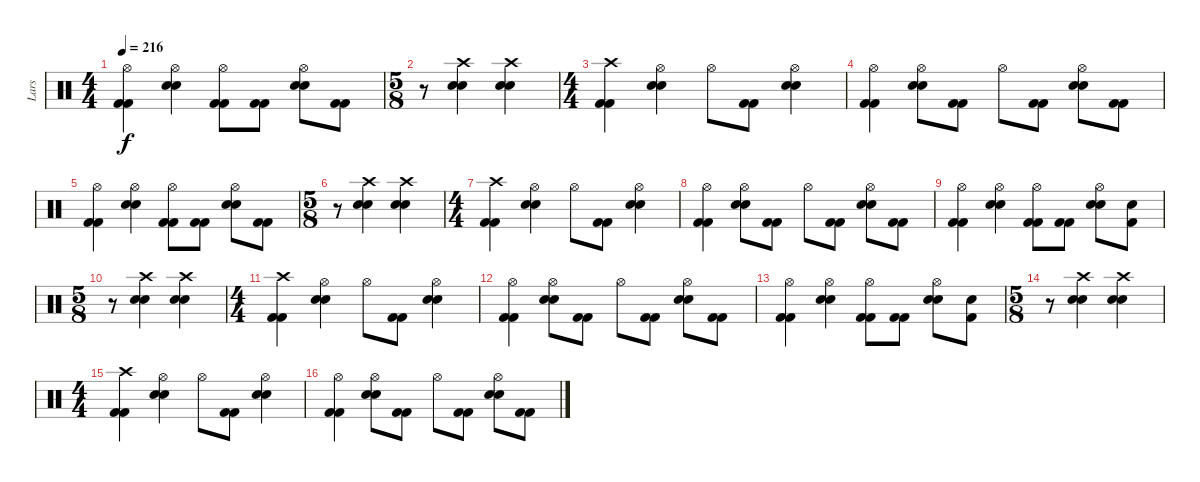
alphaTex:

\track ("Lars" "Lars") {instrument percussion}
\staff {score}
\articulation defaults
\ts (4 4)
\tempo 216
\clef neutral
\ks c
("Hi-Hat (open)" "Kick (hit) 2" "Kick (hit) 2").4{dy f} ("Hi-Hat (open)" "Electric Snare (hit)" "Electric Snare (hit)").4 ("Hi-Hat (open)" "Kick (hit) 2" "Kick (hit) 2").8 ("Kick (hit) 2" "Kick (hit) 2").8 ("Hi-Hat (open)" "Electric Snare (hit)" "Electric Snare (hit)").8 ("Kick (hit) 2" "Kick (hit) 2").8 |
\ts (5 8)
r.8 ("Crash high (hit)" "Electric Snare (hit)" "Electric Snare (hit)").4 ("Crash high (hit)" "Electric Snare (hit)" "Electric Snare (hit)").4 |
\ts (4 4)
("Crash high (hit)" "Kick (hit) 2" "Kick (hit) 2").4 ("Hi-Hat (open)" "Electric Snare (hit)" "Electric Snare (hit)").4 "Hi-Hat (open)".8 ("Kick (hit) 2" "Kick (hit) 2").8 ("Hi-Hat (open)" "Electric Snare (hit)" "Electric Snare (hit)").4 |
("Hi-Hat (open)" "Kick (hit) 2" "Kick (hit) 2").4 ("Hi-Hat (open)" "Electric Snare (hit)" "Electric Snare (hit)").8 ("Kick (hit) 2" "Kick (hit) 2").8 "Hi-Hat (open)".8 ("Kick (hit) 2" "Kick (hit) 2").8 ("Hi-Hat (open)" "Electric Snare (hit)" "Electric Snare (hit)").8 ("Kick (hit) 2" "Kick (hit) 2").8 |
("Hi-Hat (open)" "Kick (hit) 2" "Kick (hit) 2").4 ("Hi-Hat (open)" "Electric Snare (hit)" "Electric Snare (hit)").4 ("Hi-Hat (open)" "Kick (hit) 2" "Kick (hit) 2").8 ("Kick (hit) 2" "Kick (hit) 2").8 ("Hi-Hat (open)" "Electric Snare (hit)" "Electric Snare (hit)").8 ("Kick (hit) 2" "Kick (hit) 2").8 |
\ts (5 8)
r.8 ("Crash high (hit)" "Electric Snare (hit)" "Electric Snare (hit)").4 ("Crash high (hit)" "Electric Snare (hit)" "Electric Snare (hit)").4 |
\ts (4 4)
("Crash high (hit)" "Kick (hit) 2" "Kick (hit) 2").4 ("Hi-Hat (open)" "Electric Snare (hit)" "Electric Snare (hit)").4 "Hi-Hat (open)".8 ("Kick (hit) 2" "Kick (hit) 2").8 ("Hi-Hat (open)" "Electric Snare (hit)" "Electric Snare (hit)").4 |
("Hi-Hat (open)" "Kick (hit) 2" "Kick (hit) 2").4 ("Hi-Hat (open)" "Electric Snare (hit)" "Electric Snare (hit)").8 ("Kick (hit) 2" "Kick (hit) 2").8 "Hi-Hat (open)".8 ("Kick (hit) 2" "Kick (hit) 2").8 ("Hi-Hat (open)" "Electric Snare (hit)" "Electric Snare (hit)").8 ("Kick (hit) 2" "Kick (hit) 2").8 |
("Hi-Hat (open)" "Kick (hit) 2" "Kick (hit) 2").4 ("Hi-Hat (open)" "Electric Snare (hit)" "Electric Snare (hit)").4 ("Hi-Hat (open)" "Kick (hit) 2" "Kick (hit) 2").8 ("Kick (hit) 2" "Kick (hit) 2").8 ("Hi-Hat (open)" "Electric Snare (hit)" "Electric Snare (hit)").8 ("Kick (hit) 2" "Snare (hit)").8 |
\ts (5 8)
r.8 ("Crash high (hit)" "Electric Snare (hit)" "Electric Snare (hit)").4 ("Crash high (hit)" "Electric Snare (hit)" "Electric Snare (hit)").4 |
\ts (4 4)
("Crash high (hit)" "Kick (hit) 2" "Kick (hit) 2").4 ("Hi-Hat (open)" "Electric Snare (hit)" "Electric Snare (hit)").4 "Hi-Hat (open)".8 ("Kick (hit) 2" "Kick (hit) 2").8 ("Hi-Hat (open)" "Electric Snare (hit)" "Electric Snare (hit)").4 |
("Hi-Hat (open)" "Kick (hit) 2" "Kick (hit) 2").4 ("Hi-Hat (open)" "Electric Snare (hit)" "Electric Snare (hit)").8 ("Kick (hit) 2" "Kick (hit) 2").8 "Hi-Hat (open)".8 ("Kick (hit) 2" "Kick (hit) 2").8 ("Hi-Hat (open)" "Electric Snare (hit)" "Electric Snare (hit)").8 ("Kick (hit) 2" "Kick (hit) 2").8 |
("Hi-Hat (open)" "Kick (hit) 2" "Kick (hit) 2").4 ("Hi-Hat (open)" "Electric Snare (hit)" "Electric Snare (hit)").4 ("Hi-Hat (open)" "Kick (hit) 2" "Kick (hit) 2").8 ("Kick (hit) 2" "Kick (hit) 2").8 ("Hi-Hat (open)" "Electric Snare (hit)" "Electric Snare (hit)").8 ("Kick (hit) 2" "Snare (hit)").8 |
\ts (5 8)
r.8 ("Crash high (hit)" "Electric Snare (hit)" "Electric Snare (hit)").4 ("Crash high (hit)" "Electric Snare (hit)" "Electric Snare (hit)").4 |
\ts (4 4)
("Crash high (hit)" "Kick (hit) 2" "Kick (hit) 2").4 ("Hi-Hat (open)" "Electric Snare (hit)" "Electric Snare (hit)").4 "Hi-Hat (open)".8 ("Kick (hit) 2" "Kick (hit) 2").8 ("Hi-Hat (open)" "Electric Snare (hit)" "Electric Snare (hit)").4 |
("Hi-Hat (open)" "Kick (hit) 2" "Kick (hit) 2").4 ("Hi-Hat (open)" "Electric Snare (hit)" "Electric Snare (hit)").8 ("Kick (hit) 2" "Kick (hit) 2").8 "Hi-Hat (open)".8 ("Kick (hit) 2" "Kick (hit) 2").8 ("Hi-Hat (open)" "Electric Snare (hit)" "Electric Snare (hit)").8 ("Kick (hit) 2" "Kick (hit) 2").8
